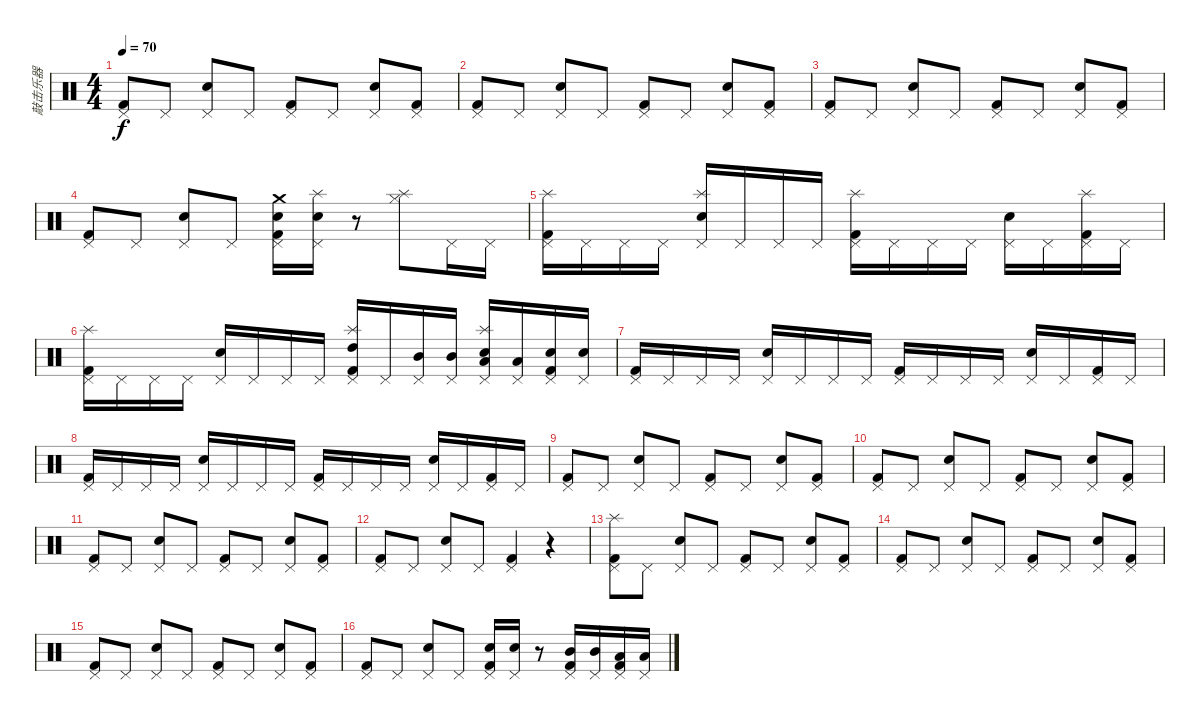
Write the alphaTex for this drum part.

\track ("敲击乐器" "敲击乐器") {instrument percussion}
\staff {score}
\articulation defaults
\ts (4 4)
\tempo 70
\clef neutral
\ks c
("Pedal Hi-Hat (hit)" "Kick (hit) 2").8{dy f} "Pedal Hi-Hat (hit)".8 ("Pedal Hi-Hat (hit)" "Snare (hit) 2").8 "Pedal Hi-Hat (hit)".8 ("Pedal Hi-Hat (hit)" "Kick (hit) 2").8 "Pedal Hi-Hat (hit)".8 ("Pedal Hi-Hat (hit)" "Snare (hit) 2").8 ("Pedal Hi-Hat (hit)" "Kick (hit) 2").8 |
("Pedal Hi-Hat (hit)" "Kick (hit) 2").8 "Pedal Hi-Hat (hit)".8 ("Pedal Hi-Hat (hit)" "Snare (hit) 2").8 "Pedal Hi-Hat (hit)".8 ("Pedal Hi-Hat (hit)" "Kick (hit) 2").8 "Pedal Hi-Hat (hit)".8 ("Pedal Hi-Hat (hit)" "Snare (hit) 2").8 ("Pedal Hi-Hat (hit)" "Kick (hit) 2").8 |
("Pedal Hi-Hat (hit)" "Kick (hit) 2").8 "Pedal Hi-Hat (hit)".8 ("Pedal Hi-Hat (hit)" "Snare (hit) 2").8 "Pedal Hi-Hat (hit)".8 ("Pedal Hi-Hat (hit)" "Kick (hit) 2").8 "Pedal Hi-Hat (hit)".8 ("Pedal Hi-Hat (hit)" "Snare (hit) 2").8 ("Pedal Hi-Hat (hit)" "Kick (hit) 2").8 |
("Pedal Hi-Hat (hit)" "Kick (hit) 2").8 "Pedal Hi-Hat (hit)".8 ("Pedal Hi-Hat (hit)" "Snare (hit) 2").8 "Pedal Hi-Hat (hit)".8 ("Pedal Hi-Hat (hit)" "Crash medium (hit)" "Snare (hit) 2" "Kick (hit) 2").16 ("Pedal Hi-Hat (hit)" "Splash (hit)" "Snare (hit) 2").16 r.8 ("Hi-Hat (closed)" "Splash (hit)").8 "Pedal Hi-Hat (hit)".16 "Pedal Hi-Hat (hit)".16 |
("Pedal Hi-Hat (hit)" "Splash (hit)" "Kick (hit) 2").16 "Pedal Hi-Hat (hit)".16 "Pedal Hi-Hat (hit)".16 "Pedal Hi-Hat (hit)".16 ("Pedal Hi-Hat (hit)" "Splash (hit)" "Electric Snare (hit)").16 "Pedal Hi-Hat (hit)".16 "Pedal Hi-Hat (hit)".16 "Pedal Hi-Hat (hit)".16 ("Pedal Hi-Hat (hit)" "Splash (hit)" "Kick (hit) 2").16 "Pedal Hi-Hat (hit)".16 "Pedal Hi-Hat (hit)".16 "Pedal Hi-Hat (hit)".16 ("Pedal Hi-Hat (hit)" "Electric Snare (hit)").16 "Pedal Hi-Hat (hit)".16 ("Pedal Hi-Hat (hit)" "Splash (hit)" "Kick (hit) 2").16 "Pedal Hi-Hat (hit)".16 |
("Pedal Hi-Hat (hit)" "Splash (hit)" "Kick (hit) 2").16 "Pedal Hi-Hat (hit)".16 "Pedal Hi-Hat (hit)".16 "Pedal Hi-Hat (hit)".16 ("Pedal Hi-Hat (hit)" "Electric Snare (hit)").16 "Pedal Hi-Hat (hit)".16 "Pedal Hi-Hat (hit)".16 "Pedal Hi-Hat (hit)".16 ("Pedal Hi-Hat (hit)" "Splash (hit)" "High Tom (hit)" "Kick (hit) 2").16 "Pedal Hi-Hat (hit)".16 ("Pedal Hi-Hat (hit)" "Mid Tom (hit)").16 ("Pedal Hi-Hat (hit)" "Mid Tom (hit)").16 ("Pedal Hi-Hat (hit)" "Splash (hit)" "Low Tom (hit)" "Electric Snare (hit)").16 ("Pedal Hi-Hat (hit)" "Low Tom (hit)").16 ("Pedal Hi-Hat (hit)" "Snare (hit) 2" "Kick (hit) 2").16 ("Pedal Hi-Hat (hit)" "Snare (hit) 2").16 |
("Pedal Hi-Hat (hit)" "Kick (hit) 2").16 "Pedal Hi-Hat (hit)".16 "Pedal Hi-Hat (hit)".16 "Pedal Hi-Hat (hit)".16 ("Pedal Hi-Hat (hit)" "Electric Snare (hit)").16 "Pedal Hi-Hat (hit)".16 "Pedal Hi-Hat (hit)".16 "Pedal Hi-Hat (hit)".16 ("Pedal Hi-Hat (hit)" "Kick (hit) 2").16 "Pedal Hi-Hat (hit)".16 "Pedal Hi-Hat (hit)".16 "Pedal Hi-Hat (hit)".16 ("Pedal Hi-Hat (hit)" "Electric Snare (hit)").16 "Pedal Hi-Hat (hit)".16 ("Pedal Hi-Hat (hit)" "Kick (hit) 2").16 "Pedal Hi-Hat (hit)".16 |
("Pedal Hi-Hat (hit)" "Kick (hit) 2").16 "Pedal Hi-Hat (hit)".16 "Pedal Hi-Hat (hit)".16 "Pedal Hi-Hat (hit)".16 ("Pedal Hi-Hat (hit)" "Electric Snare (hit)").16 "Pedal Hi-Hat (hit)".16 "Pedal Hi-Hat (hit)".16 "Pedal Hi-Hat (hit)".16 ("Pedal Hi-Hat (hit)" "Kick (hit) 2").16 "Pedal Hi-Hat (hit)".16 "Pedal Hi-Hat (hit)".16 "Pedal Hi-Hat (hit)".16 ("Pedal Hi-Hat (hit)" "Electric Snare (hit)").16 "Pedal Hi-Hat (hit)".16 ("Pedal Hi-Hat (hit)" "Kick (hit) 2").16 "Pedal Hi-Hat (hit)".16 |
("Pedal Hi-Hat (hit)" "Kick (hit) 2").8 "Pedal Hi-Hat (hit)".8 ("Pedal Hi-Hat (hit)" "Snare (hit) 2").8 "Pedal Hi-Hat (hit)".8 ("Pedal Hi-Hat (hit)" "Kick (hit) 2").8 "Pedal Hi-Hat (hit)".8 ("Pedal Hi-Hat (hit)" "Snare (hit) 2").8 ("Pedal Hi-Hat (hit)" "Kick (hit) 2").8 |
("Pedal Hi-Hat (hit)" "Kick (hit) 2").8 "Pedal Hi-Hat (hit)".8 ("Pedal Hi-Hat (hit)" "Snare (hit) 2").8 "Pedal Hi-Hat (hit)".8 ("Pedal Hi-Hat (hit)" "Kick (hit) 2").8 "Pedal Hi-Hat (hit)".8 ("Pedal Hi-Hat (hit)" "Snare (hit) 2").8 ("Pedal Hi-Hat (hit)" "Kick (hit) 2").8 |
("Pedal Hi-Hat (hit)" "Kick (hit) 2").8 "Pedal Hi-Hat (hit)".8 ("Pedal Hi-Hat (hit)" "Snare (hit) 2").8 "Pedal Hi-Hat (hit)".8 ("Pedal Hi-Hat (hit)" "Kick (hit) 2").8 "Pedal Hi-Hat (hit)".8 ("Pedal Hi-Hat (hit)" "Snare (hit) 2").8 ("Pedal Hi-Hat (hit)" "Kick (hit) 2").8 |
("Pedal Hi-Hat (hit)" "Kick (hit) 2").8 "Pedal Hi-Hat (hit)".8 ("Pedal Hi-Hat (hit)" "Snare (hit) 2").8 "Pedal Hi-Hat (hit)".8 ("Pedal Hi-Hat (hit)" "Kick (hit) 2").4 r.4 |
("Pedal Hi-Hat (hit)" "Splash (hit)" "Kick (hit) 2").8 "Pedal Hi-Hat (hit)".8 ("Pedal Hi-Hat (hit)" "Snare (hit) 2").8 "Pedal Hi-Hat (hit)".8 ("Pedal Hi-Hat (hit)" "Kick (hit) 2").8 "Pedal Hi-Hat (hit)".8 ("Pedal Hi-Hat (hit)" "Snare (hit) 2").8 ("Pedal Hi-Hat (hit)" "Kick (hit) 2").8 |
("Pedal Hi-Hat (hit)" "Kick (hit) 2").8 "Pedal Hi-Hat (hit)".8 ("Pedal Hi-Hat (hit)" "Snare (hit) 2").8 "Pedal Hi-Hat (hit)".8 ("Pedal Hi-Hat (hit)" "Kick (hit) 2").8 "Pedal Hi-Hat (hit)".8 ("Pedal Hi-Hat (hit)" "Snare (hit) 2").8 ("Pedal Hi-Hat (hit)" "Kick (hit) 2").8 |
("Pedal Hi-Hat (hit)" "Kick (hit) 2").8 "Pedal Hi-Hat (hit)".8 ("Pedal Hi-Hat (hit)" "Snare (hit) 2").8 "Pedal Hi-Hat (hit)".8 ("Pedal Hi-Hat (hit)" "Kick (hit) 2").8 "Pedal Hi-Hat (hit)".8 ("Pedal Hi-Hat (hit)" "Snare (hit) 2").8 ("Pedal Hi-Hat (hit)" "Kick (hit) 2").8 |
("Pedal Hi-Hat (hit)" "Kick (hit) 2").8 "Pedal Hi-Hat (hit)".8 ("Pedal Hi-Hat (hit)" "Snare (hit) 2").8 "Pedal Hi-Hat (hit)".8 ("Pedal Hi-Hat (hit)" "Electric Snare (hit)" "Kick (hit) 2").16 ("Pedal Hi-Hat (hit)" "Electric Snare (hit)").16 r.8 ("Pedal Hi-Hat (hit)" "Mid Tom (hit)" "Kick (hit) 2").16 ("Pedal Hi-Hat (hit)" "Mid Tom (hit)").16 ("Pedal Hi-Hat (hit)" "Low Tom (hit)" "Kick (hit) 2").16 ("Pedal Hi-Hat (hit)" "Low Tom (hit)").16
